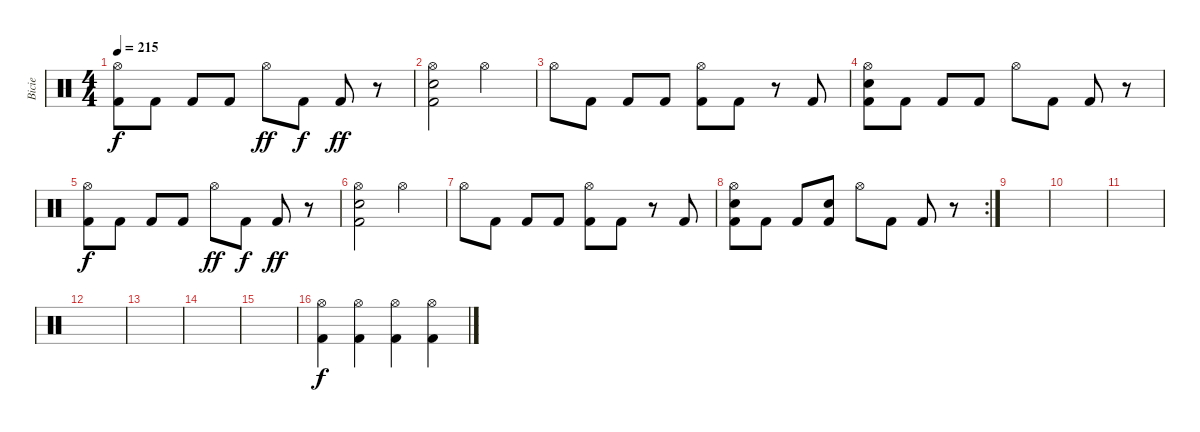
\track ("Bicie" "Bicie") {instrument percussion}
\staff {score}
\articulation defaults
\ts (4 4)
\tempo 215
\clef neutral
\ks c
("Hi-Hat (open)" "Kick (hit) 2").8{dy f} "Kick (hit) 2".8 "Kick (hit) 2".8 "Kick (hit) 2".8 "Hi-Hat (open)".8{dy ff} "Kick (hit) 2".8{dy f} "Kick (hit) 2".8{dy ff} r.8 |
("Hi-Hat (open)" "Electric Snare (hit)" "Kick (hit) 2").2 "Hi-Hat (open)".2 |
"Hi-Hat (open)".8 "Kick (hit) 2".8 "Kick (hit) 2".8 "Kick (hit) 2".8 ("Hi-Hat (open)" "Kick (hit) 2").8 "Kick (hit) 2".8 r.8 "Kick (hit) 2".8 |
("Hi-Hat (open)" "Electric Snare (hit)" "Kick (hit) 2").8 "Kick (hit) 2".8 "Kick (hit) 2".8 "Kick (hit) 2".8 "Hi-Hat (open)".8 "Kick (hit) 2".8 "Kick (hit) 2".8 r.8 |
("Hi-Hat (open)" "Kick (hit) 2").8{dy f} "Kick (hit) 2".8 "Kick (hit) 2".8 "Kick (hit) 2".8 "Hi-Hat (open)".8{dy ff} "Kick (hit) 2".8{dy f} "Kick (hit) 2".8{dy ff} r.8 |
("Hi-Hat (open)" "Electric Snare (hit)" "Kick (hit) 2").2 "Hi-Hat (open)".2 |
"Hi-Hat (open)".8 "Kick (hit) 2".8 "Kick (hit) 2".8 "Kick (hit) 2".8 ("Hi-Hat (open)" "Kick (hit) 2").8 "Kick (hit) 2".8 r.8 "Kick (hit) 2".8 |
\rc 2
("Hi-Hat (open)" "Electric Snare (hit)" "Kick (hit) 2").8 "Kick (hit) 2".8 "Kick (hit) 2".8 ("Electric Snare (hit)" "Kick (hit) 2").8 "Hi-Hat (open)".8 "Kick (hit) 2".8 "Kick (hit) 2".8 r.8 |
|
|
|
|
|
|
|
("Hi-Hat (open)" "Kick (hit) 2").4{dy f} ("Hi-Hat (open)" "Kick (hit) 2").4 ("Hi-Hat (open)" "Kick (hit) 2").4 ("Hi-Hat (open)" "Kick (hit) 2").4
